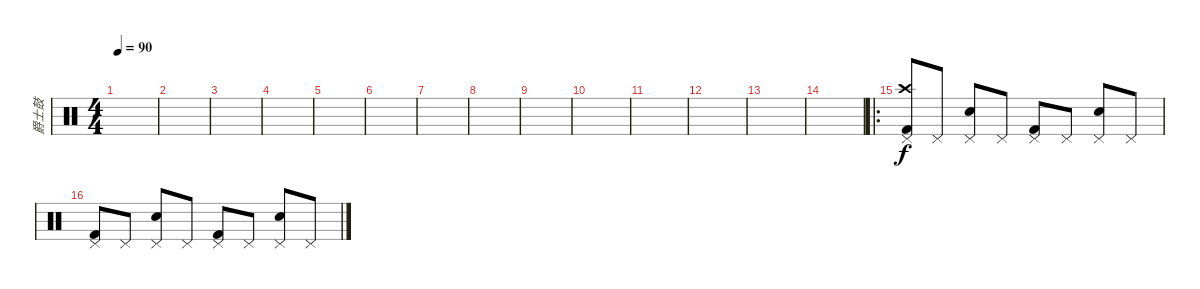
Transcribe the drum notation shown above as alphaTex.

\track ("爵士鼓" "爵士鼓") {instrument percussion}
\staff {score}
\articulation defaults
\ts (4 4)
\tempo 90
\clef neutral
\ks c
|
|
|
|
|
|
|
|
|
|
|
|
|
|
\ro
("Pedal Hi-Hat (hit)" "Crash high (hit)" "Kick (hit) 2").8 "Pedal Hi-Hat (hit)".8 ("Pedal Hi-Hat (hit)" "Electric Snare (hit)").8 "Pedal Hi-Hat (hit)".8 ("Pedal Hi-Hat (hit)" "Kick (hit) 2").8 "Pedal Hi-Hat (hit)".8 ("Pedal Hi-Hat (hit)" "Electric Snare (hit)").8 "Pedal Hi-Hat (hit)".8 |
("Pedal Hi-Hat (hit)" "Kick (hit) 2").8 "Pedal Hi-Hat (hit)".8 ("Pedal Hi-Hat (hit)" "Electric Snare (hit)").8 "Pedal Hi-Hat (hit)".8 ("Pedal Hi-Hat (hit)" "Kick (hit) 2").8 "Pedal Hi-Hat (hit)".8 ("Pedal Hi-Hat (hit)" "Electric Snare (hit)").8 "Pedal Hi-Hat (hit)".8
